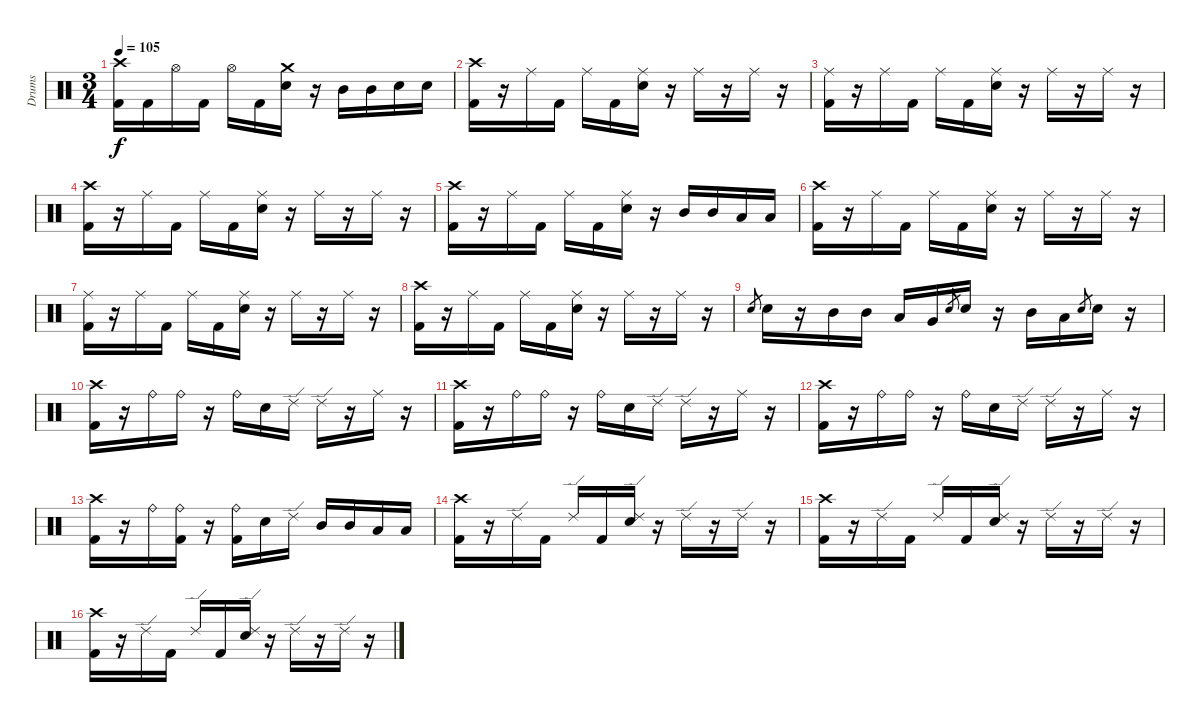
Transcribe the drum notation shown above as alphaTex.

\track ("Drums" "Drums") {instrument percussion}
\staff {score}
\articulation defaults
\ts (3 4)
\tempo 105
\clef neutral
\ks c
("Crash high (hit)" "Kick (hit) 2").16{dy f} "Kick (hit) 2".16 "Hi-Hat (open)".16 "Kick (hit) 2".16 "Hi-Hat (open)".16 "Kick (hit) 2".16 ("Crash medium (hit)" "Electric Snare (hit)").16 r.16 "Mid Tom (hit)".16 "Mid Tom (hit)".16 "Electric Snare (hit)".16 "Electric Snare (hit)".16 |
("Crash high (hit)" "Kick (hit) 2").16 r.16 "Ride (middle)".16 "Kick (hit) 2".16 "Ride (middle)".16 "Kick (hit) 2".16 ("Ride (middle)" "Electric Snare (hit)").16 r.16 "Ride (middle)".16 r.16 "Ride (middle)".16 r.16 |
("Ride (middle)" "Kick (hit) 2").16 r.16 "Ride (middle)".16 "Kick (hit) 2".16 "Ride (middle)".16 "Kick (hit) 2".16 ("Ride (middle)" "Electric Snare (hit)").16 r.16 "Ride (middle)".16 r.16 "Ride (middle)".16 r.16 |
("Crash high (hit)" "Kick (hit) 2").16 r.16 "Ride (middle)".16 "Kick (hit) 2".16 "Ride (middle)".16 "Kick (hit) 2".16 ("Ride (middle)" "Electric Snare (hit)").16 r.16 "Ride (middle)".16 r.16 "Ride (middle)".16 r.16 |
("Crash high (hit)" "Kick (hit) 2").16 r.16 "Ride (middle)".16 "Kick (hit) 2".16 "Ride (middle)".16 "Kick (hit) 2".16 ("Ride (middle)" "Electric Snare (hit)").16 r.16 "Mid Tom (hit)".16 "Mid Tom (hit)".16 "Low Tom (hit)".16 "Low Tom (hit)".16 |
("Crash high (hit)" "Kick (hit) 2").16 r.16 "Ride (middle)".16 "Kick (hit) 2".16 "Ride (middle)".16 "Kick (hit) 2".16 ("Ride (middle)" "Electric Snare (hit)").16 r.16 "Ride (middle)".16 r.16 "Ride (middle)".16 r.16 |
("Ride (middle)" "Kick (hit) 2").16 r.16 "Ride (middle)".16 "Kick (hit) 2".16 "Ride (middle)".16 "Kick (hit) 2".16 ("Ride (middle)" "Electric Snare (hit)").16 r.16 "Ride (middle)".16 r.16 "Ride (middle)".16 r.16 |
("Crash high (hit)" "Kick (hit) 2").16 r.16 "Ride (middle)".16 "Kick (hit) 2".16 "Ride (middle)".16 "Kick (hit) 2".16 ("Ride (middle)" "Electric Snare (hit)").16 r.16 "Ride (middle)".16 r.16 "Ride (middle)".16 r.16 |
"Electric Snare (hit)".8{gr} "Electric Snare (hit)".16 r.16 "Mid Tom (hit)".16 "Mid Tom (hit)".16 "Low Tom (hit)".16 "Very Low Tom (hit)".16 "Electric Snare (hit)".8{gr} "Electric Snare (hit)".16 r.16 "Mid Tom (hit)".16 "Low Tom (hit)".16 "Electric Snare (hit)".8{gr} "Electric Snare (hit)".16 r.16 |
("Crash high (hit)" "Kick (hit) 2").16 r.16 "Ride (bell)".16 "Ride (bell)".16 r.16 "Ride (bell)".16 "Electric Snare (hit)".16 "Ride (edge) 2".16 "Ride (edge) 2".16 r.16 "Ride (middle)".16 r.16 |
("Crash high (hit)" "Kick (hit) 2").16 r.16 "Ride (bell)".16 "Ride (bell)".16 r.16 "Ride (bell)".16 "Electric Snare (hit)".16 "Ride (edge) 2".16 "Ride (edge) 2".16 r.16 "Ride (middle)".16 r.16 |
("Crash high (hit)" "Kick (hit) 2").16 r.16 "Ride (bell)".16 "Ride (bell)".16 r.16 "Ride (bell)".16 "Electric Snare (hit)".16 "Ride (edge) 2".16 "Ride (edge) 2".16 r.16 "Ride (middle)".16 r.16 |
("Crash high (hit)" "Kick (hit) 2").16 r.16 "Ride (bell)".16 ("Ride (bell)" "Kick (hit) 2").16 r.16 ("Ride (bell)" "Kick (hit) 2").16 "Electric Snare (hit)".16 "Ride (edge) 2".16 "Mid Tom (hit)".16 "Mid Tom (hit)".16 "Low Tom (hit)".16 "Low Tom (hit)".16 |
("Crash high (hit)" "Kick (hit) 2").16 r.16 "Ride (edge) 2".16 "Kick (hit) 2".16 "Ride (edge) 2".16 "Kick (hit) 2".16 ("Ride (edge) 2" "Electric Snare (hit)").16 r.16 "Ride (edge) 2".16 r.16 "Ride (edge) 2".16 r.16 |
("Crash high (hit)" "Kick (hit) 2").16 r.16 "Ride (edge) 2".16 "Kick (hit) 2".16 "Ride (edge) 2".16 "Kick (hit) 2".16 ("Ride (edge) 2" "Electric Snare (hit)").16 r.16 "Ride (edge) 2".16 r.16 "Ride (edge) 2".16 r.16 |
("Crash high (hit)" "Kick (hit) 2").16 r.16 "Ride (edge) 2".16 "Kick (hit) 2".16 "Ride (edge) 2".16 "Kick (hit) 2".16 ("Ride (edge) 2" "Electric Snare (hit)").16 r.16 "Ride (edge) 2".16 r.16 "Ride (edge) 2".16 r.16
